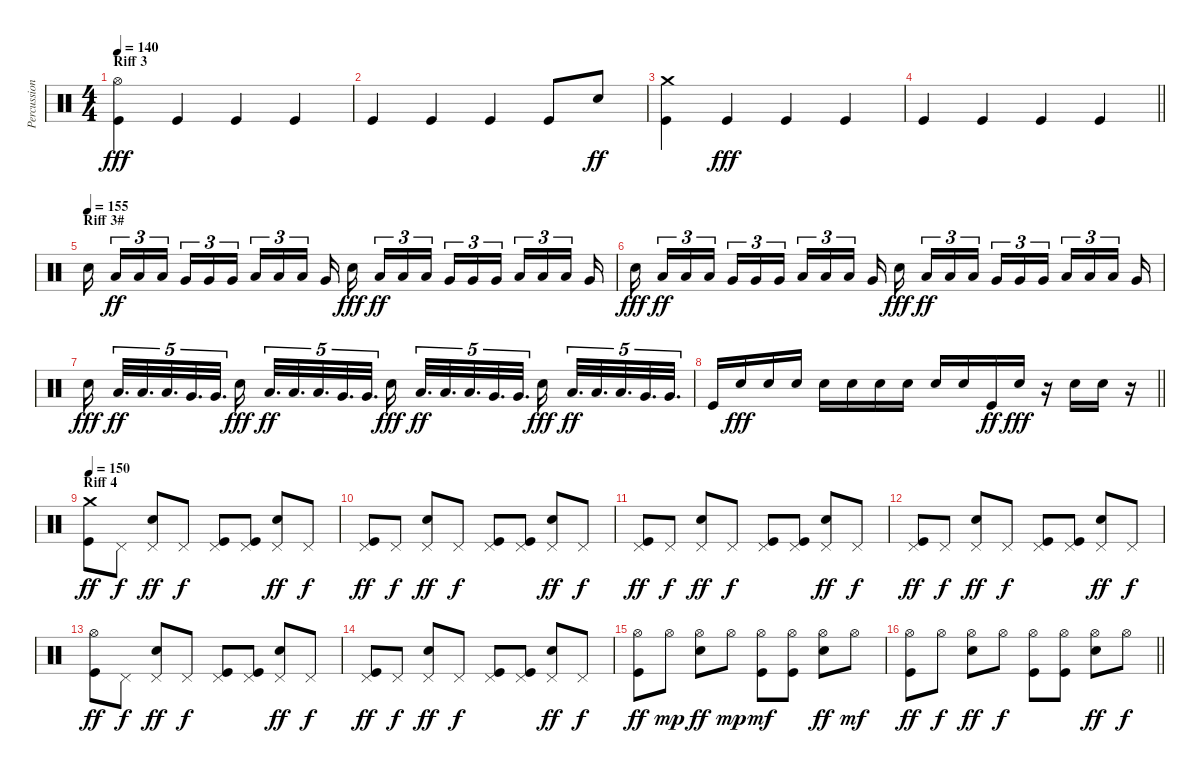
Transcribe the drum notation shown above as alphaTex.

\track ("Percussions" "Percussion") {instrument percussion}
\staff {score}
\articulation defaults
\ts (4 4)
\section ("" "Riff 3")
\tempo 140
\clef neutral
\ks c
("Hi-Hat (open)" "Kick (hit)").4{dy fff} "Kick (hit)".4 "Kick (hit)".4 "Kick (hit)".4 |
"Kick (hit)".4 "Kick (hit)".4 "Kick (hit)".4 "Kick (hit)".8 "Electric Snare (hit)".8{dy ff} |
("Crash medium (hit)" "Kick (hit)").4 "Kick (hit)".4{dy fff} "Kick (hit)".4 "Kick (hit)".4 |
\barLineRight lightlight "Kick (hit)".4 "Kick (hit)".4 "Kick (hit)".4 "Kick (hit)".4
|
\section ("" "Riff 3#")
\tempo (155)
"Electric Snare (hit)".16{beam splitsecondary} "Low Floor Tom (hit)".16{tu (3 2) dy ff} "Low Floor Tom (hit)".16{tu (3 2)} "Low Floor Tom (hit)".16{tu (3 2) beam splitsecondary} "Very Low Tom (hit)".16{tu (3 2)} "Very Low Tom (hit)".16{tu (3 2)} "Very Low Tom (hit)".16{tu (3 2) beam splitsecondary} "Low Floor Tom (hit)".16{tu (3 2)} "Low Floor Tom (hit)".16{tu (3 2)} "Low Floor Tom (hit)".16{tu (3 2) beam splitsecondary} "Very Low Tom (hit)".16 "Electric Snare (hit)".16{dy fff beam splitsecondary} "Low Floor Tom (hit)".16{tu (3 2) dy ff} "Low Floor Tom (hit)".16{tu (3 2)} "Low Floor Tom (hit)".16{tu (3 2) beam splitsecondary} "Very Low Tom (hit)".16{tu (3 2)} "Very Low Tom (hit)".16{tu (3 2)} "Very Low Tom (hit)".16{tu (3 2) beam splitsecondary} "Low Floor Tom (hit)".16{tu (3 2)} "Low Floor Tom (hit)".16{tu (3 2)} "Low Floor Tom (hit)".16{tu (3 2) beam splitsecondary} "Very Low Tom (hit)".16 |
"Electric Snare (hit)".16{dy fff beam splitsecondary} "Low Floor Tom (hit)".16{tu (3 2) dy ff} "Low Floor Tom (hit)".16{tu (3 2)} "Low Floor Tom (hit)".16{tu (3 2) beam splitsecondary} "Very Low Tom (hit)".16{tu (3 2)} "Very Low Tom (hit)".16{tu (3 2)} "Very Low Tom (hit)".16{tu (3 2) beam splitsecondary} "Low Floor Tom (hit)".16{tu (3 2)} "Low Floor Tom (hit)".16{tu (3 2)} "Low Floor Tom (hit)".16{tu (3 2) beam splitsecondary} "Very Low Tom (hit)".16 "Electric Snare (hit)".16{dy fff beam splitsecondary} "Low Floor Tom (hit)".16{tu (3 2) dy ff} "Low Floor Tom (hit)".16{tu (3 2)} "Low Floor Tom (hit)".16{tu (3 2) beam splitsecondary} "Very Low Tom (hit)".16{tu (3 2)} "Very Low Tom (hit)".16{tu (3 2)} "Very Low Tom (hit)".16{tu (3 2) beam splitsecondary} "Low Floor Tom (hit)".16{tu (3 2)} "Low Floor Tom (hit)".16{tu (3 2)} "Low Floor Tom (hit)".16{tu (3 2) beam splitsecondary} "Very Low Tom (hit)".16 |
"Electric Snare (hit)".16{dy fff beam splitsecondary} "Low Floor Tom (hit)".32{d tu (5 4) dy ff} "Low Floor Tom (hit)".32{d tu (5 4)} "Low Floor Tom (hit)".32{d tu (5 4)} "Very Low Tom (hit)".32{d tu (5 4)} "Very Low Tom (hit)".32{d tu (5 4)} "Electric Snare (hit)".16{dy fff beam splitsecondary} "Low Floor Tom (hit)".32{d tu (5 4) dy ff} "Low Floor Tom (hit)".32{d tu (5 4)} "Low Floor Tom (hit)".32{d tu (5 4)} "Very Low Tom (hit)".32{d tu (5 4)} "Very Low Tom (hit)".32{d tu (5 4)} "Electric Snare (hit)".16{dy fff beam splitsecondary} "Low Floor Tom (hit)".32{d tu (5 4) dy ff} "Low Floor Tom (hit)".32{d tu (5 4)} "Low Floor Tom (hit)".32{d tu (5 4)} "Very Low Tom (hit)".32{d tu (5 4)} "Very Low Tom (hit)".32{d tu (5 4)} "Electric Snare (hit)".16{dy fff beam splitsecondary} "Low Floor Tom (hit)".32{d tu (5 4) dy ff} "Low Floor Tom (hit)".32{d tu (5 4)} "Low Floor Tom (hit)".32{d tu (5 4)} "Very Low Tom (hit)".32{d tu (5 4)} "Very Low Tom (hit)".32{d tu (5 4)} |
\barLineRight lightlight "Kick (hit)".16 "Electric Snare (hit)".16{dy fff} "Electric Snare (hit)".16 "Electric Snare (hit)".16 "Electric Snare (hit)".16 "Electric Snare (hit)".16 "Electric Snare (hit)".16 "Electric Snare (hit)".16 "Electric Snare (hit)".16 "Electric Snare (hit)".16 "Kick (hit)".16{dy ff} "Electric Snare (hit)".16{dy fff}
r.16 "Electric Snare (hit)".16 "Electric Snare (hit)".16 r.16 |
\section ("" "Riff 4")
\tempo 150
("Crash medium (hit)" "Kick (hit)").8{dy ff} "Pedal Hi-Hat (hit)".8{dy f} ("Pedal Hi-Hat (hit)" "Electric Snare (hit)").8{dy ff} "Pedal Hi-Hat (hit)".8{dy f} ("Pedal Hi-Hat (hit)" "Kick (hit)").8 ("Pedal Hi-Hat (hit)" "Kick (hit)").8 ("Pedal Hi-Hat (hit)" "Electric Snare (hit)").8{dy ff} "Pedal Hi-Hat (hit)".8{dy f} |
("Pedal Hi-Hat (hit)" "Kick (hit)").8{dy ff} "Pedal Hi-Hat (hit)".8{dy f} ("Pedal Hi-Hat (hit)" "Electric Snare (hit)").8{dy ff} "Pedal Hi-Hat (hit)".8{dy f} ("Pedal Hi-Hat (hit)" "Kick (hit)").8 ("Pedal Hi-Hat (hit)" "Kick (hit)").8 ("Pedal Hi-Hat (hit)" "Electric Snare (hit)").8{dy ff} "Pedal Hi-Hat (hit)".8{dy f} |
("Pedal Hi-Hat (hit)" "Kick (hit)").8{dy ff} "Pedal Hi-Hat (hit)".8{dy f} ("Pedal Hi-Hat (hit)" "Electric Snare (hit)").8{dy ff} "Pedal Hi-Hat (hit)".8{dy f} ("Pedal Hi-Hat (hit)" "Kick (hit)").8 ("Pedal Hi-Hat (hit)" "Kick (hit)").8 ("Pedal Hi-Hat (hit)" "Electric Snare (hit)").8{dy ff} "Pedal Hi-Hat (hit)".8{dy f} |
("Pedal Hi-Hat (hit)" "Kick (hit)").8{dy ff} "Pedal Hi-Hat (hit)".8{dy f} ("Pedal Hi-Hat (hit)" "Electric Snare (hit)").8{dy ff} "Pedal Hi-Hat (hit)".8{dy f} ("Pedal Hi-Hat (hit)" "Kick (hit)").8 ("Pedal Hi-Hat (hit)" "Kick (hit)").8 ("Pedal Hi-Hat (hit)" "Electric Snare (hit)").8{dy ff} "Pedal Hi-Hat (hit)".8{dy f} |
("Hi-Hat (open)" "Kick (hit)").8{dy ff} "Pedal Hi-Hat (hit)".8{dy f} ("Pedal Hi-Hat (hit)" "Electric Snare (hit)").8{dy ff} "Pedal Hi-Hat (hit)".8{dy f} ("Pedal Hi-Hat (hit)" "Kick (hit)").8 ("Pedal Hi-Hat (hit)" "Kick (hit)").8 ("Pedal Hi-Hat (hit)" "Electric Snare (hit)").8{dy ff} "Pedal Hi-Hat (hit)".8{dy f} |
("Pedal Hi-Hat (hit)" "Kick (hit)").8{dy ff} "Pedal Hi-Hat (hit)".8{dy f} ("Pedal Hi-Hat (hit)" "Electric Snare (hit)").8{dy ff} "Pedal Hi-Hat (hit)".8{dy f} ("Pedal Hi-Hat (hit)" "Kick (hit)").8 ("Pedal Hi-Hat (hit)" "Kick (hit)").8 ("Pedal Hi-Hat (hit)" "Electric Snare (hit)").8{dy ff} "Pedal Hi-Hat (hit)".8{dy f} |
("Hi-Hat (open)" "Kick (hit)").8{dy ff} "Hi-Hat (open)".8{dy mp} ("Hi-Hat (open)" "Electric Snare (hit)").8{dy ff} "Hi-Hat (open)".8{dy mp} ("Hi-Hat (open)" "Kick (hit)").8{dy mf} ("Hi-Hat (open)" "Kick (hit)").8 ("Hi-Hat (open)" "Electric Snare (hit)").8{dy ff} "Hi-Hat (open)".8{dy mf} |
\barLineRight lightlight
("Hi-Hat (open)" "Kick (hit)").8{dy ff} "Hi-Hat (open)".8{dy f} ("Hi-Hat (open)" "Electric Snare (hit)").8{dy ff} "Hi-Hat (open)".8{dy f} ("Hi-Hat (open)" "Kick (hit)").8 ("Hi-Hat (open)" "Kick (hit)").8 ("Hi-Hat (open)" "Electric Snare (hit)").8{dy ff} "Hi-Hat (open)".8{dy f}
